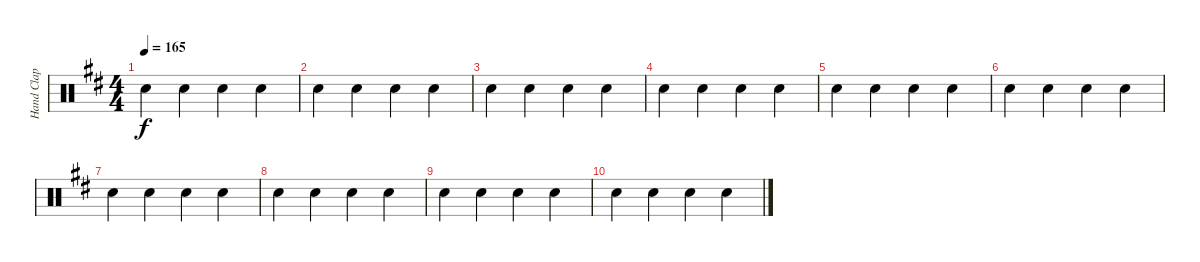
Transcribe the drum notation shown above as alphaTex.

\track ("Hand Clap" "Hand Clap") {instrument percussion}
\staff {score}
\articulation defaults
\ts (4 4)
\tempo 165
\clef neutral
\ks d "Hand Clap (hit)".4{dy f} "Hand Clap (hit)".4 "Hand Clap (hit)".4 "Hand Clap (hit)".4
|
"Hand Clap (hit)".4 "Hand Clap (hit)".4 "Hand Clap (hit)".4 "Hand Clap (hit)".4 |
"Hand Clap (hit)".4 "Hand Clap (hit)".4 "Hand Clap (hit)".4 "Hand Clap (hit)".4 |
"Hand Clap (hit)".4 "Hand Clap (hit)".4 "Hand Clap (hit)".4 "Hand Clap (hit)".4 |
"Hand Clap (hit)".4 "Hand Clap (hit)".4 "Hand Clap (hit)".4 "Hand Clap (hit)".4 |
"Hand Clap (hit)".4 "Hand Clap (hit)".4 "Hand Clap (hit)".4 "Hand Clap (hit)".4 |
"Hand Clap (hit)".4 "Hand Clap (hit)".4 "Hand Clap (hit)".4 "Hand Clap (hit)".4 |
"Hand Clap (hit)".4 "Hand Clap (hit)".4 "Hand Clap (hit)".4 "Hand Clap (hit)".4 |
"Hand Clap (hit)".4 "Hand Clap (hit)".4 "Hand Clap (hit)".4 "Hand Clap (hit)".4 |
"Hand Clap (hit)".4 "Hand Clap (hit)".4 "Hand Clap (hit)".4 "Hand Clap (hit)".4
